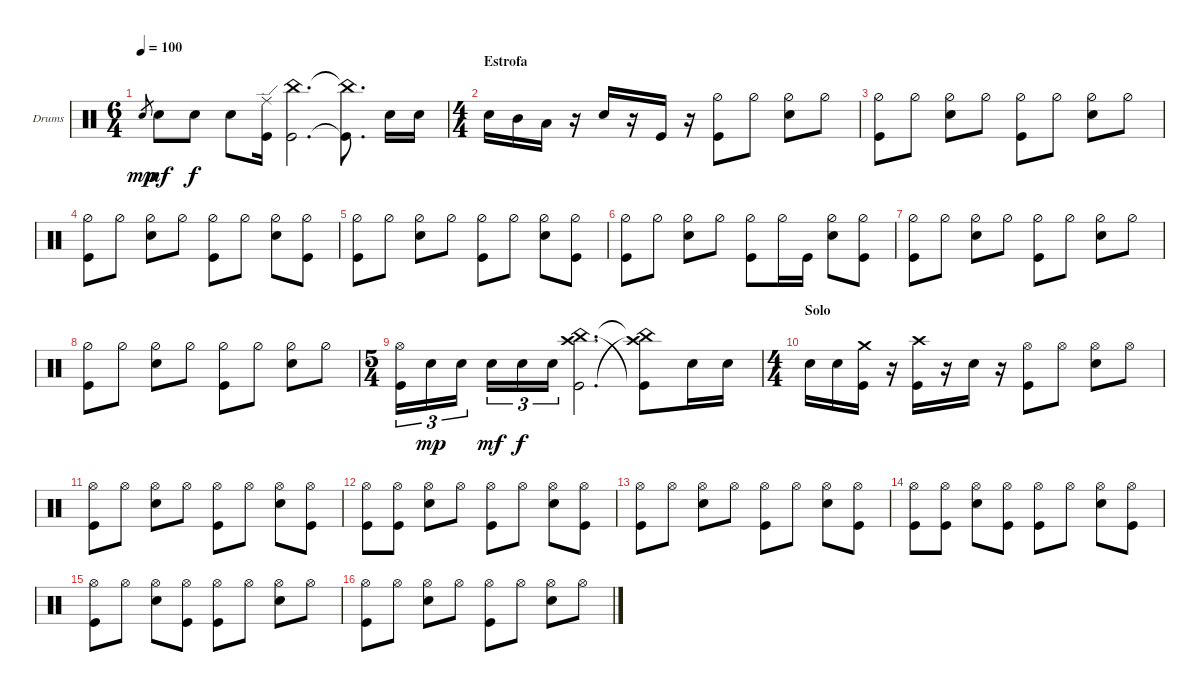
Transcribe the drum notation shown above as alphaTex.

\defaultSystemsLayout 4
\bracketExtendMode groupsimilarinstruments
\firstSystemTrackNameOrientation horizontal
\otherSystemsTrackNameOrientation horizontal
\track ("Drumkit" "Drums") {instrument percussion}
\staff {score}
\articulation defaults
\ts (6 4)
\tempo 100
\clef neutral
\ks c "Snare (hit) 2".8{gr dy mp} "Snare (hit) 2".8{dy mf} "Snare (hit) 2".8{dy f} "Snare (hit) 2".8
("Kick (hit)" "Ride (edge)").16 ("Kick (hit)" "China (hit)").2{d} ("Kick (hit)"{t} "China (hit)"{t}).8{d} "Snare (hit) 2".16 "Snare (hit) 2".16 |
\ts (4 4)
\section ("" "Estrofa")
"Snare (hit) 2".16 "Mid Tom (hit)".16 "Low Tom (hit)".16 r.16 "Snare (hit) 2".16 r.16 "Kick (hit)".16 r.16 ("Hi-Hat (half)" "Kick (hit)").8 "Hi-Hat (half)".8 ("Hi-Hat (half)" "Snare (hit) 2").8 "Hi-Hat (half)".8 |
("Hi-Hat (half)" "Kick (hit)").8 "Hi-Hat (half)".8 ("Hi-Hat (half)" "Snare (hit) 2").8 "Hi-Hat (half)".8 ("Hi-Hat (half)" "Kick (hit)").8 "Hi-Hat (half)".8 ("Hi-Hat (half)" "Snare (hit) 2").8 "Hi-Hat (half)".8 |
("Hi-Hat (half)" "Kick (hit)").8 "Hi-Hat (half)".8 ("Hi-Hat (half)" "Snare (hit) 2").8 "Hi-Hat (half)".8 ("Hi-Hat (half)" "Kick (hit)").8 "Hi-Hat (half)".8 ("Hi-Hat (half)" "Snare (hit) 2").8 ("Hi-Hat (half)" "Kick (hit)").8 |
("Hi-Hat (half)" "Kick (hit)").8 "Hi-Hat (half)".8 ("Hi-Hat (half)" "Snare (hit) 2").8 "Hi-Hat (half)".8 ("Hi-Hat (half)" "Kick (hit)").8 "Hi-Hat (half)".8 ("Hi-Hat (half)" "Snare (hit) 2").8 ("Hi-Hat (half)" "Kick (hit)").8 |
("Hi-Hat (half)" "Kick (hit)").8 "Hi-Hat (half)".8 ("Hi-Hat (half)" "Snare (hit) 2").8 "Hi-Hat (half)".8 ("Hi-Hat (half)" "Kick (hit)").8 "Hi-Hat (half)".16 "Kick (hit)".16 ("Hi-Hat (half)" "Snare (hit) 2").8 ("Hi-Hat (half)" "Kick (hit)").8 |
("Hi-Hat (half)" "Kick (hit)").8 "Hi-Hat (half)".8 ("Hi-Hat (half)" "Snare (hit) 2").8 "Hi-Hat (half)".8 ("Hi-Hat (half)" "Kick (hit)").8 "Hi-Hat (half)".8 ("Hi-Hat (half)" "Snare (hit) 2").8 "Hi-Hat (half)".8 |
("Hi-Hat (half)" "Kick (hit)").8 "Hi-Hat (half)".8 ("Hi-Hat (half)" "Snare (hit) 2").8 "Hi-Hat (half)".8 ("Hi-Hat (half)" "Kick (hit)").8 "Hi-Hat (half)".8 ("Hi-Hat (half)" "Snare (hit) 2").8 "Hi-Hat (half)".8 |
\ts (5 4)
("Hi-Hat (open)" "Kick (hit)").16{tu (3 2)} "Snare (hit) 2".16{tu (3 2) dy mp} "Snare (hit) 2".16{tu (3 2)} "Snare (hit) 2".16{tu (3 2) dy mf} "Snare (hit) 2".16{tu (3 2) dy f} "Snare (hit) 2".16{tu (3 2)} ("Crash high (hit)" "Kick (hit)" "China (hit)").2{d} ("Kick (hit)"{t} "Crash high (hit)"{t} "China (hit)"{t}).8 "Snare (hit) 2".16 "Snare (hit) 2".16 |
\ts (4 4)
\section ("" "Solo")
"Snare (hit) 2".16 "Snare (hit) 2".16 ("Kick (hit)" "Crash medium (hit)").16 r.16 ("Kick (hit)" "Crash high (hit)").16 r.16 "Snare (hit) 2".16 r.16 ("Hi-Hat (open)" "Kick (hit)").8 "Hi-Hat (open)".8 ("Hi-Hat (open)" "Snare (hit) 2").8 "Hi-Hat (open)".8 |
("Hi-Hat (open)" "Kick (hit)").8 "Hi-Hat (open)".8 ("Hi-Hat (open)" "Snare (hit) 2").8 "Hi-Hat (open)".8 ("Hi-Hat (open)" "Kick (hit)").8 "Hi-Hat (open)".8 ("Hi-Hat (open)" "Snare (hit) 2").8 ("Hi-Hat (open)" "Kick (hit)").8 |
("Hi-Hat (open)" "Kick (hit)").8 ("Hi-Hat (open)" "Kick (hit)").8 ("Hi-Hat (open)" "Snare (hit) 2").8 "Hi-Hat (open)".8 ("Hi-Hat (open)" "Kick (hit)").8 "Hi-Hat (open)".8 ("Hi-Hat (open)" "Snare (hit) 2").8 ("Hi-Hat (open)" "Kick (hit)").8 |
("Hi-Hat (open)" "Kick (hit)").8 "Hi-Hat (open)".8 ("Hi-Hat (open)" "Snare (hit) 2").8 "Hi-Hat (open)".8 ("Hi-Hat (open)" "Kick (hit)").8 "Hi-Hat (open)".8 ("Hi-Hat (open)" "Snare (hit) 2").8 ("Hi-Hat (open)" "Kick (hit)").8 |
("Hi-Hat (open)" "Kick (hit)").8 ("Hi-Hat (open)" "Kick (hit)").8 ("Hi-Hat (open)" "Snare (hit) 2").8 ("Hi-Hat (open)" "Kick (hit)").8 ("Hi-Hat (open)" "Kick (hit)").8 "Hi-Hat (open)".8 ("Hi-Hat (open)" "Snare (hit) 2").8 ("Hi-Hat (open)" "Kick (hit)").8 |
("Hi-Hat (open)" "Kick (hit)").8 "Hi-Hat (open)".8 ("Hi-Hat (open)" "Snare (hit) 2").8 ("Hi-Hat (open)" "Kick (hit)").8 ("Hi-Hat (open)" "Kick (hit)").8 "Hi-Hat (open)".8 ("Hi-Hat (open)" "Snare (hit) 2").8 "Hi-Hat (open)".8 |
("Hi-Hat (open)" "Kick (hit)").8 "Hi-Hat (open)".8 ("Hi-Hat (open)" "Snare (hit) 2").8 "Hi-Hat (open)".8 ("Hi-Hat (open)" "Kick (hit)").8 "Hi-Hat (open)".8 ("Hi-Hat (open)" "Snare (hit) 2").8 "Hi-Hat (open)".8
